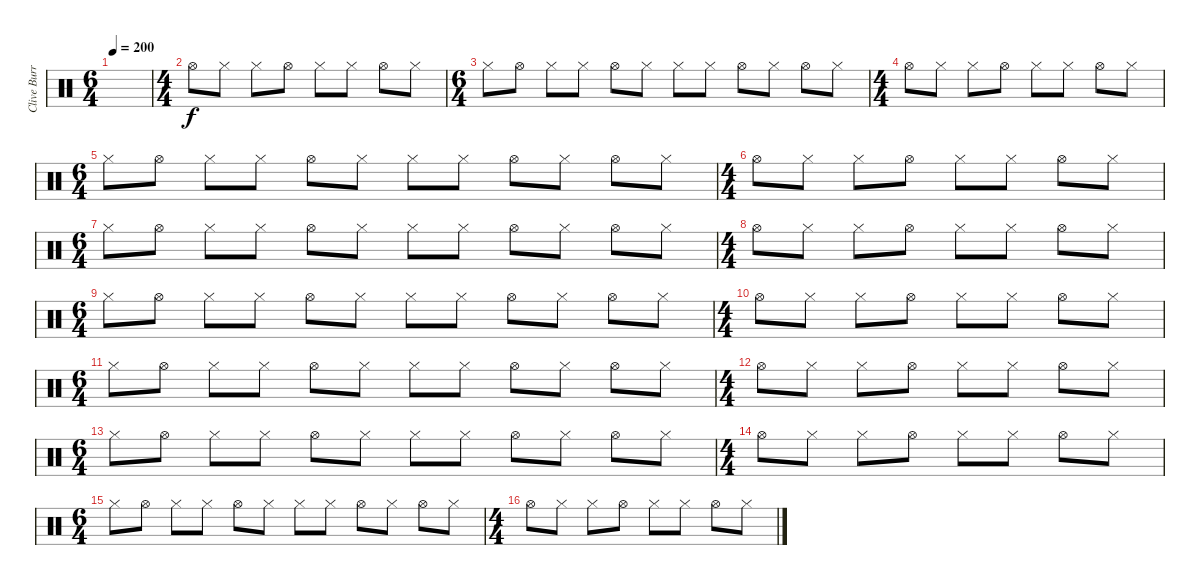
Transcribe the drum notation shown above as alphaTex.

\track ("Clive Burr" "Clive Burr") {instrument percussion}
\staff {score}
\articulation defaults
\ts (6 4)
\tempo 200
\clef neutral
\ks c
|
\ts (4 4)
"Hi-Hat (open)".8 "Hi-Hat (closed)".8 "Hi-Hat (closed)".8 "Hi-Hat (open)".8 "Hi-Hat (closed)".8 "Hi-Hat (closed)".8 "Hi-Hat (open)".8 "Hi-Hat (closed)".8 |
\ts (6 4)
"Hi-Hat (closed)".8 "Hi-Hat (open)".8 "Hi-Hat (closed)".8 "Hi-Hat (closed)".8 "Hi-Hat (open)".8 "Hi-Hat (closed)".8 "Hi-Hat (closed)".8 "Hi-Hat (closed)".8 "Hi-Hat (open)".8 "Hi-Hat (closed)".8 "Hi-Hat (open)".8 "Hi-Hat (closed)".8 |
\ts (4 4)
"Hi-Hat (open)".8 "Hi-Hat (closed)".8 "Hi-Hat (closed)".8 "Hi-Hat (open)".8 "Hi-Hat (closed)".8 "Hi-Hat (closed)".8 "Hi-Hat (open)".8 "Hi-Hat (closed)".8 |
\ts (6 4)
"Hi-Hat (closed)".8 "Hi-Hat (open)".8 "Hi-Hat (closed)".8 "Hi-Hat (closed)".8 "Hi-Hat (open)".8 "Hi-Hat (closed)".8 "Hi-Hat (closed)".8 "Hi-Hat (closed)".8 "Hi-Hat (open)".8 "Hi-Hat (closed)".8 "Hi-Hat (open)".8 "Hi-Hat (closed)".8 |
\ts (4 4)
"Hi-Hat (open)".8 "Hi-Hat (closed)".8 "Hi-Hat (closed)".8 "Hi-Hat (open)".8 "Hi-Hat (closed)".8 "Hi-Hat (closed)".8 "Hi-Hat (open)".8 "Hi-Hat (closed)".8 |
\ts (6 4)
"Hi-Hat (closed)".8 "Hi-Hat (open)".8 "Hi-Hat (closed)".8 "Hi-Hat (closed)".8 "Hi-Hat (open)".8 "Hi-Hat (closed)".8 "Hi-Hat (closed)".8 "Hi-Hat (closed)".8 "Hi-Hat (open)".8 "Hi-Hat (closed)".8 "Hi-Hat (open)".8 "Hi-Hat (closed)".8 |
\ts (4 4)
"Hi-Hat (open)".8 "Hi-Hat (closed)".8 "Hi-Hat (closed)".8 "Hi-Hat (open)".8 "Hi-Hat (closed)".8 "Hi-Hat (closed)".8 "Hi-Hat (open)".8 "Hi-Hat (closed)".8 |
\ts (6 4)
"Hi-Hat (closed)".8 "Hi-Hat (open)".8 "Hi-Hat (closed)".8 "Hi-Hat (closed)".8 "Hi-Hat (open)".8 "Hi-Hat (closed)".8 "Hi-Hat (closed)".8 "Hi-Hat (closed)".8 "Hi-Hat (open)".8 "Hi-Hat (closed)".8 "Hi-Hat (open)".8 "Hi-Hat (closed)".8 |
\ts (4 4)
"Hi-Hat (open)".8 "Hi-Hat (closed)".8 "Hi-Hat (closed)".8 "Hi-Hat (open)".8 "Hi-Hat (closed)".8 "Hi-Hat (closed)".8 "Hi-Hat (open)".8 "Hi-Hat (closed)".8 |
\ts (6 4)
"Hi-Hat (closed)".8 "Hi-Hat (open)".8 "Hi-Hat (closed)".8 "Hi-Hat (closed)".8 "Hi-Hat (open)".8 "Hi-Hat (closed)".8 "Hi-Hat (closed)".8 "Hi-Hat (closed)".8 "Hi-Hat (open)".8 "Hi-Hat (closed)".8 "Hi-Hat (open)".8 "Hi-Hat (closed)".8 |
\ts (4 4)
"Hi-Hat (open)".8 "Hi-Hat (closed)".8 "Hi-Hat (closed)".8 "Hi-Hat (open)".8 "Hi-Hat (closed)".8 "Hi-Hat (closed)".8 "Hi-Hat (open)".8 "Hi-Hat (closed)".8 |
\ts (6 4)
"Hi-Hat (closed)".8 "Hi-Hat (open)".8 "Hi-Hat (closed)".8 "Hi-Hat (closed)".8 "Hi-Hat (open)".8 "Hi-Hat (closed)".8 "Hi-Hat (closed)".8 "Hi-Hat (closed)".8 "Hi-Hat (open)".8 "Hi-Hat (closed)".8 "Hi-Hat (open)".8 "Hi-Hat (closed)".8 |
\ts (4 4)
"Hi-Hat (open)".8 "Hi-Hat (closed)".8 "Hi-Hat (closed)".8 "Hi-Hat (open)".8 "Hi-Hat (closed)".8 "Hi-Hat (closed)".8 "Hi-Hat (open)".8 "Hi-Hat (closed)".8 |
\ts (6 4)
"Hi-Hat (closed)".8 "Hi-Hat (open)".8 "Hi-Hat (closed)".8 "Hi-Hat (closed)".8 "Hi-Hat (open)".8 "Hi-Hat (closed)".8 "Hi-Hat (closed)".8 "Hi-Hat (closed)".8 "Hi-Hat (open)".8 "Hi-Hat (closed)".8 "Hi-Hat (open)".8 "Hi-Hat (closed)".8 |
\ts (4 4)
"Hi-Hat (open)".8 "Hi-Hat (closed)".8 "Hi-Hat (closed)".8 "Hi-Hat (open)".8 "Hi-Hat (closed)".8 "Hi-Hat (closed)".8 "Hi-Hat (open)".8 "Hi-Hat (closed)".8
